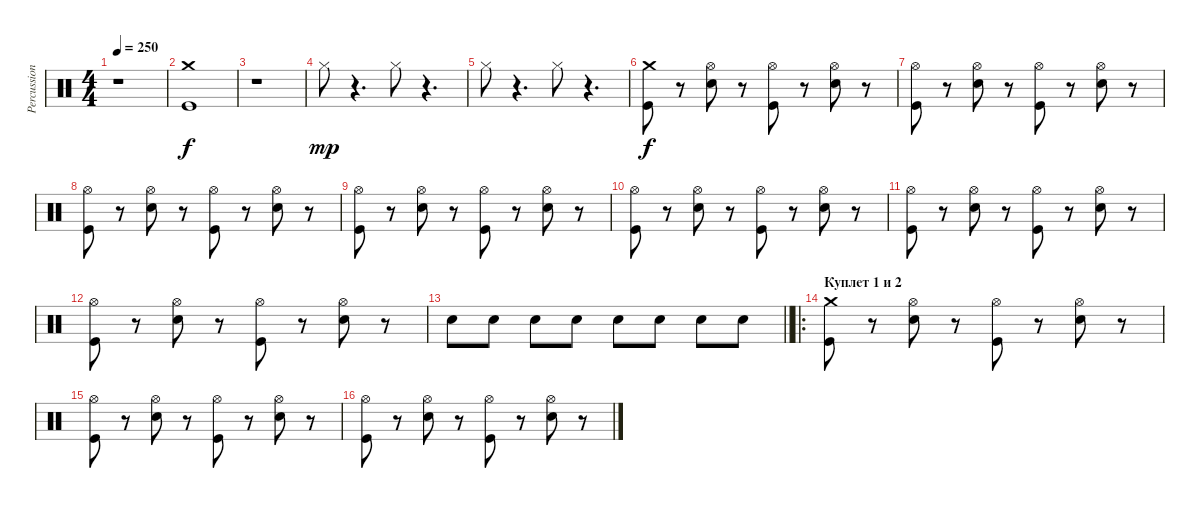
\track ("Percussion" "Percussion") {instrument percussion}
\staff {score}
\articulation defaults
\ts (4 4)
\tempo 250
\clef neutral
\ks c
r.1{dy f} |
("Crash medium (hit)" "Kick (hit)").1 |
r.1 |
"Hi-Hat (closed)".8{dy mp} r.4{d} "Hi-Hat (closed)".8 r.4{d} |
"Hi-Hat (closed)".8 r.4{d} "Hi-Hat (closed)".8 r.4{d} |
("Crash medium (hit)" "Kick (hit)").8{dy f} r.8 ("Hi-Hat (open)" "Electric Snare (hit)").8 r.8 ("Hi-Hat (open)" "Kick (hit)").8 r.8 ("Hi-Hat (open)" "Electric Snare (hit)").8 r.8 |
("Hi-Hat (open)" "Kick (hit)").8 r.8 ("Hi-Hat (open)" "Electric Snare (hit)").8 r.8 ("Hi-Hat (open)" "Kick (hit)").8 r.8 ("Hi-Hat (open)" "Electric Snare (hit)").8 r.8 |
("Hi-Hat (open)" "Kick (hit)").8 r.8 ("Hi-Hat (open)" "Electric Snare (hit)").8 r.8 ("Hi-Hat (open)" "Kick (hit)").8 r.8 ("Hi-Hat (open)" "Electric Snare (hit)").8 r.8 |
("Hi-Hat (open)" "Kick (hit)").8 r.8 ("Hi-Hat (open)" "Electric Snare (hit)").8 r.8 ("Hi-Hat (open)" "Kick (hit)").8 r.8 ("Hi-Hat (open)" "Electric Snare (hit)").8 r.8 |
("Hi-Hat (open)" "Kick (hit)").8 r.8 ("Hi-Hat (open)" "Electric Snare (hit)").8 r.8 ("Hi-Hat (open)" "Kick (hit)").8 r.8 ("Hi-Hat (open)" "Electric Snare (hit)").8 r.8 |
("Hi-Hat (open)" "Kick (hit)").8 r.8 ("Hi-Hat (open)" "Electric Snare (hit)").8 r.8 ("Hi-Hat (open)" "Kick (hit)").8 r.8 ("Hi-Hat (open)" "Electric Snare (hit)").8 r.8 |
("Hi-Hat (open)" "Kick (hit)").8 r.8 ("Hi-Hat (open)" "Electric Snare (hit)").8 r.8 ("Hi-Hat (open)" "Kick (hit)").8 r.8 ("Hi-Hat (open)" "Electric Snare (hit)").8 r.8 |
\barLineRight lightlight "Electric Snare (hit)".8 "Electric Snare (hit)".8 "Electric Snare (hit)".8 "Electric Snare (hit)".8 "Electric Snare (hit)".8 "Electric Snare (hit)".8 "Electric Snare (hit)".8 "Electric Snare (hit)".8
|
\ro
\section ("" "Куплет 1 и 2")
("Crash medium (hit)" "Kick (hit)").8 r.8 ("Hi-Hat (open)" "Electric Snare (hit)").8 r.8 ("Hi-Hat (open)" "Kick (hit)").8 r.8 ("Hi-Hat (open)" "Electric Snare (hit)").8 r.8 |
("Hi-Hat (open)" "Kick (hit)").8 r.8 ("Hi-Hat (open)" "Electric Snare (hit)").8 r.8 ("Hi-Hat (open)" "Kick (hit)").8 r.8 ("Hi-Hat (open)" "Electric Snare (hit)").8 r.8 |
("Hi-Hat (open)" "Kick (hit)").8 r.8 ("Hi-Hat (open)" "Electric Snare (hit)").8 r.8 ("Hi-Hat (open)" "Kick (hit)").8 r.8 ("Hi-Hat (open)" "Electric Snare (hit)").8 r.8
